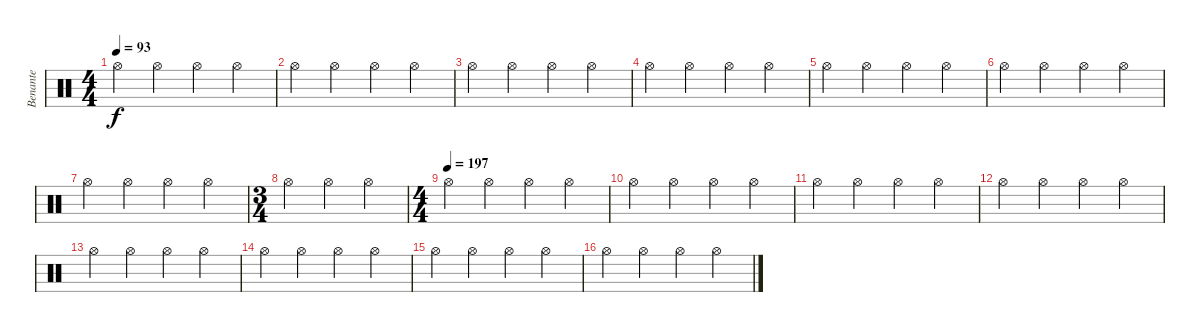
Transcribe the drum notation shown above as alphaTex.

\track ("Benante" "Benante") {solo instrument percussion}
\staff {score}
\articulation defaults
\ts (4 4)
\tempo 93
\clef neutral
\ks c "Hi-Hat (open)".4{dy f} "Hi-Hat (open)".4 "Hi-Hat (open)".4 "Hi-Hat (open)".4
|
"Hi-Hat (open)".4 "Hi-Hat (open)".4 "Hi-Hat (open)".4 "Hi-Hat (open)".4 |
"Hi-Hat (open)".4 "Hi-Hat (open)".4 "Hi-Hat (open)".4 "Hi-Hat (open)".4 |
"Hi-Hat (open)".4 "Hi-Hat (open)".4 "Hi-Hat (open)".4 "Hi-Hat (open)".4 |
"Hi-Hat (open)".4 "Hi-Hat (open)".4 "Hi-Hat (open)".4 "Hi-Hat (open)".4 |
"Hi-Hat (open)".4 "Hi-Hat (open)".4 "Hi-Hat (open)".4 "Hi-Hat (open)".4 |
"Hi-Hat (open)".4 "Hi-Hat (open)".4 "Hi-Hat (open)".4 "Hi-Hat (open)".4 |
\ts (3 4)
"Hi-Hat (open)".4 "Hi-Hat (open)".4 "Hi-Hat (open)".4 |
\ts (4 4)
\tempo (197)
"Hi-Hat (open)".4 "Hi-Hat (open)".4 "Hi-Hat (open)".4 "Hi-Hat (open)".4 |
"Hi-Hat (open)".4 "Hi-Hat (open)".4 "Hi-Hat (open)".4 "Hi-Hat (open)".4 |
"Hi-Hat (open)".4 "Hi-Hat (open)".4 "Hi-Hat (open)".4 "Hi-Hat (open)".4 |
"Hi-Hat (open)".4 "Hi-Hat (open)".4 "Hi-Hat (open)".4 "Hi-Hat (open)".4 |
"Hi-Hat (open)".4 "Hi-Hat (open)".4 "Hi-Hat (open)".4 "Hi-Hat (open)".4 |
"Hi-Hat (open)".4 "Hi-Hat (open)".4 "Hi-Hat (open)".4 "Hi-Hat (open)".4 |
"Hi-Hat (open)".4 "Hi-Hat (open)".4 "Hi-Hat (open)".4 "Hi-Hat (open)".4 |
"Hi-Hat (open)".4 "Hi-Hat (open)".4 "Hi-Hat (open)".4 "Hi-Hat (open)".4
